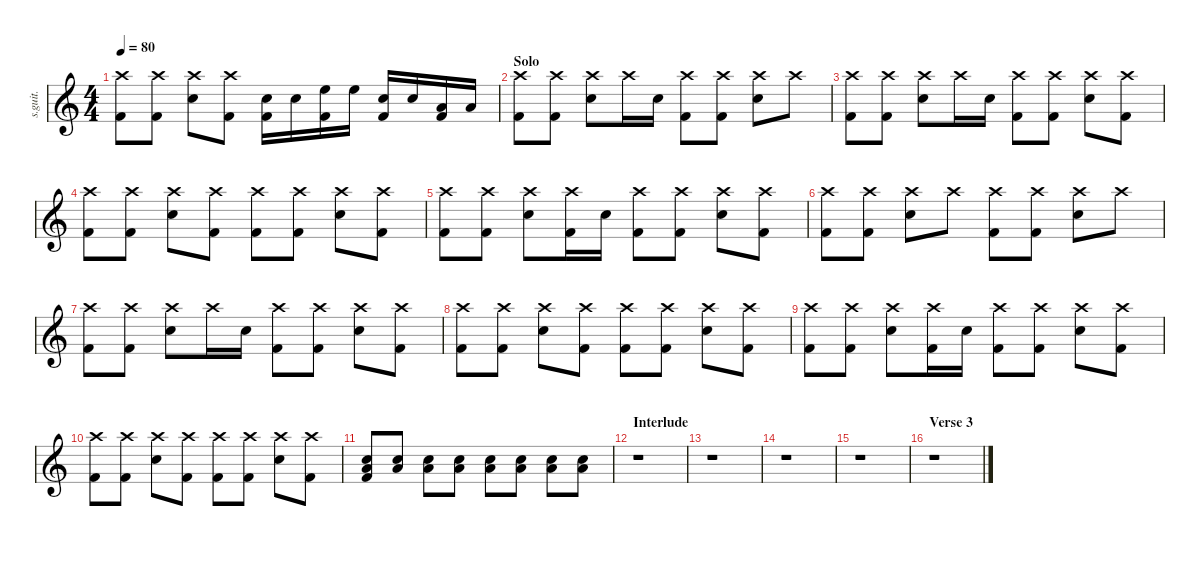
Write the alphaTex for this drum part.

\defaultSystemsLayout 4
\hideDynamics
\bracketExtendMode nobrackets
\track ("Tré Cool" "s.guit.") {instrument percussion}
\staff {score}
\articulation defaults
\ts (4 4)
\tempo 80
\clef g2
\ks c
("Crash high (hit)" "Kick (hit) 2").8{lyrics (0 "") lyrics (1 "") lyrics (2 "") lyrics (3 "") lyrics (4 "") dy f} ("Crash high (hit)" "Kick (hit) 2").8{lyrics (0 "") lyrics (1 "") lyrics (2 "") lyrics (3 "") lyrics (4 "")} ("Crash high (hit)" "Snare (hit) 2").8{lyrics (0 "") lyrics (1 "") lyrics (2 "") lyrics (3 "") lyrics (4 "")} ("Crash high (hit)" "Kick (hit) 2").8{lyrics (0 "") lyrics (1 "") lyrics (2 "") lyrics (3 "") lyrics (4 "")} ("Snare (hit) 2" "Kick (hit) 2").16{lyrics (0 "") lyrics (1 "") lyrics (2 "") lyrics (3 "") lyrics (4 "")} "Snare (hit) 2".16{lyrics (0 "") lyrics (1 "") lyrics (2 "") lyrics (3 "") lyrics (4 "")} ("High Floor Tom (hit)" "Kick (hit) 2").16{lyrics (0 "") lyrics (1 "") lyrics (2 "") lyrics (3 "") lyrics (4 "")} "High Floor Tom (hit)".16{lyrics (0 "") lyrics (1 "") lyrics (2 "") lyrics (3 "") lyrics (4 "")} ("Snare (hit) 2" "Kick (hit) 2").16{lyrics (0 "") lyrics (1 "") lyrics (2 "") lyrics (3 "") lyrics (4 "")} "Snare (hit) 2".16{lyrics (0 "") lyrics (1 "") lyrics (2 "") lyrics (3 "") lyrics (4 "")} ("Low Tom (hit)" "Kick (hit) 2").16{lyrics (0 "") lyrics (1 "") lyrics (2 "") lyrics (3 "") lyrics (4 "")} "Low Tom (hit)".16{lyrics (0 "") lyrics (1 "") lyrics (2 "") lyrics (3 "") lyrics (4 "")} |
\section ("" "Solo")
("Crash high (hit)" "Kick (hit) 2").8{lyrics (0 "") lyrics (1 "") lyrics (2 "") lyrics (3 "") lyrics (4 "")} ("Crash high (hit)" "Kick (hit) 2").8{lyrics (0 "") lyrics (1 "") lyrics (2 "") lyrics (3 "") lyrics (4 "")} ("Crash high (hit)" "Snare (hit) 2").8{lyrics (0 "") lyrics (1 "") lyrics (2 "") lyrics (3 "") lyrics (4 "")} "Crash high (hit)".16{lyrics (0 "") lyrics (1 "") lyrics (2 "") lyrics (3 "") lyrics (4 "")} "Snare (hit) 2".16{lyrics (0 "") lyrics (1 "") lyrics (2 "") lyrics (3 "") lyrics (4 "")} ("Crash high (hit)" "Kick (hit) 2").8{lyrics (0 "") lyrics (1 "") lyrics (2 "") lyrics (3 "") lyrics (4 "")} ("Crash high (hit)" "Kick (hit) 2").8{lyrics (0 "") lyrics (1 "") lyrics (2 "") lyrics (3 "") lyrics (4 "")} ("Crash high (hit)" "Snare (hit) 2").8{lyrics (0 "") lyrics (1 "") lyrics (2 "") lyrics (3 "") lyrics (4 "")} "Crash high (hit)".8{lyrics (0 "") lyrics (1 "") lyrics (2 "") lyrics (3 "") lyrics (4 "")} |
("Crash high (hit)" "Kick (hit) 2").8{lyrics (0 "") lyrics (1 "") lyrics (2 "") lyrics (3 "") lyrics (4 "")} ("Crash high (hit)" "Kick (hit) 2").8{lyrics (0 "") lyrics (1 "") lyrics (2 "") lyrics (3 "") lyrics (4 "")} ("Crash high (hit)" "Snare (hit) 2").8{lyrics (0 "") lyrics (1 "") lyrics (2 "") lyrics (3 "") lyrics (4 "")} "Crash high (hit)".16{lyrics (0 "") lyrics (1 "") lyrics (2 "") lyrics (3 "") lyrics (4 "")} "Snare (hit) 2".16{lyrics (0 "") lyrics (1 "") lyrics (2 "") lyrics (3 "") lyrics (4 "")} ("Crash high (hit)" "Kick (hit) 2").8{lyrics (0 "") lyrics (1 "") lyrics (2 "") lyrics (3 "") lyrics (4 "")} ("Crash high (hit)" "Kick (hit) 2").8{lyrics (0 "") lyrics (1 "") lyrics (2 "") lyrics (3 "") lyrics (4 "")} ("Crash high (hit)" "Snare (hit) 2").8{lyrics (0 "") lyrics (1 "") lyrics (2 "") lyrics (3 "") lyrics (4 "")} ("Crash high (hit)" "Kick (hit) 2").8{lyrics (0 "") lyrics (1 "") lyrics (2 "") lyrics (3 "") lyrics (4 "")} |
("Crash high (hit)" "Kick (hit) 2").8{lyrics (0 "") lyrics (1 "") lyrics (2 "") lyrics (3 "") lyrics (4 "")} ("Crash high (hit)" "Kick (hit) 2").8{lyrics (0 "") lyrics (1 "") lyrics (2 "") lyrics (3 "") lyrics (4 "")} ("Crash high (hit)" "Snare (hit) 2").8{lyrics (0 "") lyrics (1 "") lyrics (2 "") lyrics (3 "") lyrics (4 "")} ("Crash high (hit)" "Kick (hit) 2").8{lyrics (0 "") lyrics (1 "") lyrics (2 "") lyrics (3 "") lyrics (4 "")} ("Crash high (hit)" "Kick (hit) 2").8{lyrics (0 "") lyrics (1 "") lyrics (2 "") lyrics (3 "") lyrics (4 "")} ("Crash high (hit)" "Kick (hit) 2").8{lyrics (0 "") lyrics (1 "") lyrics (2 "") lyrics (3 "") lyrics (4 "")} ("Crash high (hit)" "Snare (hit) 2").8{lyrics (0 "") lyrics (1 "") lyrics (2 "") lyrics (3 "") lyrics (4 "")} ("Crash high (hit)" "Kick (hit) 2").8{lyrics (0 "") lyrics (1 "") lyrics (2 "") lyrics (3 "") lyrics (4 "")} |
("Crash high (hit)" "Kick (hit) 2").8{lyrics (0 "") lyrics (1 "") lyrics (2 "") lyrics (3 "") lyrics (4 "")} ("Crash high (hit)" "Kick (hit) 2").8{lyrics (0 "") lyrics (1 "") lyrics (2 "") lyrics (3 "") lyrics (4 "")} ("Crash high (hit)" "Snare (hit) 2").8{lyrics (0 "") lyrics (1 "") lyrics (2 "") lyrics (3 "") lyrics (4 "")} ("Crash high (hit)" "Kick (hit) 2").16{lyrics (0 "") lyrics (1 "") lyrics (2 "") lyrics (3 "") lyrics (4 "")} "Snare (hit) 2".16{lyrics (0 "") lyrics (1 "") lyrics (2 "") lyrics (3 "") lyrics (4 "")} ("Crash high (hit)" "Kick (hit) 2").8{lyrics (0 "") lyrics (1 "") lyrics (2 "") lyrics (3 "") lyrics (4 "")} ("Crash high (hit)" "Kick (hit) 2").8{lyrics (0 "") lyrics (1 "") lyrics (2 "") lyrics (3 "") lyrics (4 "")} ("Crash high (hit)" "Snare (hit) 2").8{lyrics (0 "") lyrics (1 "") lyrics (2 "") lyrics (3 "") lyrics (4 "")} ("Crash high (hit)" "Kick (hit) 2").8{lyrics (0 "") lyrics (1 "") lyrics (2 "") lyrics (3 "") lyrics (4 "")} |
("Crash high (hit)" "Kick (hit) 2").8{lyrics (0 "") lyrics (1 "") lyrics (2 "") lyrics (3 "") lyrics (4 "")} ("Crash high (hit)" "Kick (hit) 2").8{lyrics (0 "") lyrics (1 "") lyrics (2 "") lyrics (3 "") lyrics (4 "")} ("Crash high (hit)" "Snare (hit) 2").8{lyrics (0 "") lyrics (1 "") lyrics (2 "") lyrics (3 "") lyrics (4 "")} "Crash high (hit)".8{lyrics (0 "") lyrics (1 "") lyrics (2 "") lyrics (3 "") lyrics (4 "")} ("Crash high (hit)" "Kick (hit) 2").8{lyrics (0 "") lyrics (1 "") lyrics (2 "") lyrics (3 "") lyrics (4 "")} ("Crash high (hit)" "Kick (hit) 2").8{lyrics (0 "") lyrics (1 "") lyrics (2 "") lyrics (3 "") lyrics (4 "")} ("Crash high (hit)" "Snare (hit) 2").8{lyrics (0 "") lyrics (1 "") lyrics (2 "") lyrics (3 "") lyrics (4 "")} "Crash high (hit)".8{lyrics (0 "") lyrics (1 "") lyrics (2 "") lyrics (3 "") lyrics (4 "")} |
("Crash high (hit)" "Kick (hit) 2").8{lyrics (0 "") lyrics (1 "") lyrics (2 "") lyrics (3 "") lyrics (4 "")} ("Crash high (hit)" "Kick (hit) 2").8{lyrics (0 "") lyrics (1 "") lyrics (2 "") lyrics (3 "") lyrics (4 "")} ("Crash high (hit)" "Snare (hit) 2").8{lyrics (0 "") lyrics (1 "") lyrics (2 "") lyrics (3 "") lyrics (4 "")} "Crash high (hit)".16{lyrics (0 "") lyrics (1 "") lyrics (2 "") lyrics (3 "") lyrics (4 "")} "Snare (hit) 2".16{lyrics (0 "") lyrics (1 "") lyrics (2 "") lyrics (3 "") lyrics (4 "")} ("Crash high (hit)" "Kick (hit) 2").8{lyrics (0 "") lyrics (1 "") lyrics (2 "") lyrics (3 "") lyrics (4 "")} ("Crash high (hit)" "Kick (hit) 2").8{lyrics (0 "") lyrics (1 "") lyrics (2 "") lyrics (3 "") lyrics (4 "")} ("Crash high (hit)" "Snare (hit) 2").8{lyrics (0 "") lyrics (1 "") lyrics (2 "") lyrics (3 "") lyrics (4 "")} ("Crash high (hit)" "Kick (hit) 2").8{lyrics (0 "") lyrics (1 "") lyrics (2 "") lyrics (3 "") lyrics (4 "")} |
("Crash high (hit)" "Kick (hit) 2").8{lyrics (0 "") lyrics (1 "") lyrics (2 "") lyrics (3 "") lyrics (4 "")} ("Crash high (hit)" "Kick (hit) 2").8{lyrics (0 "") lyrics (1 "") lyrics (2 "") lyrics (3 "") lyrics (4 "")} ("Crash high (hit)" "Snare (hit) 2").8{lyrics (0 "") lyrics (1 "") lyrics (2 "") lyrics (3 "") lyrics (4 "")} ("Crash high (hit)" "Kick (hit) 2").8{lyrics (0 "") lyrics (1 "") lyrics (2 "") lyrics (3 "") lyrics (4 "")} ("Crash high (hit)" "Kick (hit) 2").8{lyrics (0 "") lyrics (1 "") lyrics (2 "") lyrics (3 "") lyrics (4 "")} ("Crash high (hit)" "Kick (hit) 2").8{lyrics (0 "") lyrics (1 "") lyrics (2 "") lyrics (3 "") lyrics (4 "")} ("Crash high (hit)" "Snare (hit) 2").8{lyrics (0 "") lyrics (1 "") lyrics (2 "") lyrics (3 "") lyrics (4 "")} ("Crash high (hit)" "Kick (hit) 2").8{lyrics (0 "") lyrics (1 "") lyrics (2 "") lyrics (3 "") lyrics (4 "")} |
("Crash high (hit)" "Kick (hit) 2").8{lyrics (0 "") lyrics (1 "") lyrics (2 "") lyrics (3 "") lyrics (4 "")} ("Crash high (hit)" "Kick (hit) 2").8{lyrics (0 "") lyrics (1 "") lyrics (2 "") lyrics (3 "") lyrics (4 "")} ("Crash high (hit)" "Snare (hit) 2").8{lyrics (0 "") lyrics (1 "") lyrics (2 "") lyrics (3 "") lyrics (4 "")} ("Crash high (hit)" "Kick (hit) 2").16{lyrics (0 "") lyrics (1 "") lyrics (2 "") lyrics (3 "") lyrics (4 "")} "Snare (hit) 2".16{lyrics (0 "") lyrics (1 "") lyrics (2 "") lyrics (3 "") lyrics (4 "")} ("Crash high (hit)" "Kick (hit) 2").8{lyrics (0 "") lyrics (1 "") lyrics (2 "") lyrics (3 "") lyrics (4 "")} ("Crash high (hit)" "Kick (hit) 2").8{lyrics (0 "") lyrics (1 "") lyrics (2 "") lyrics (3 "") lyrics (4 "")} ("Crash high (hit)" "Snare (hit) 2").8{lyrics (0 "") lyrics (1 "") lyrics (2 "") lyrics (3 "") lyrics (4 "")} ("Crash high (hit)" "Kick (hit) 2").8{lyrics (0 "") lyrics (1 "") lyrics (2 "") lyrics (3 "") lyrics (4 "")} |
("Crash high (hit)" "Kick (hit) 2").8{lyrics (0 "") lyrics (1 "") lyrics (2 "") lyrics (3 "") lyrics (4 "")} ("Crash high (hit)" "Kick (hit) 2").8{lyrics (0 "") lyrics (1 "") lyrics (2 "") lyrics (3 "") lyrics (4 "")} ("Crash high (hit)" "Snare (hit) 2").8{lyrics (0 "") lyrics (1 "") lyrics (2 "") lyrics (3 "") lyrics (4 "")} ("Crash high (hit)" "Kick (hit) 2").8{lyrics (0 "") lyrics (1 "") lyrics (2 "") lyrics (3 "") lyrics (4 "")} ("Crash high (hit)" "Kick (hit) 2").8{lyrics (0 "") lyrics (1 "") lyrics (2 "") lyrics (3 "") lyrics (4 "")} ("Crash high (hit)" "Kick (hit) 2").8{lyrics (0 "") lyrics (1 "") lyrics (2 "") lyrics (3 "") lyrics (4 "")} ("Crash high (hit)" "Snare (hit) 2").8{lyrics (0 "") lyrics (1 "") lyrics (2 "") lyrics (3 "") lyrics (4 "")} ("Crash high (hit)" "Kick (hit) 2").8{lyrics (0 "") lyrics (1 "") lyrics (2 "") lyrics (3 "") lyrics (4 "")} |
("Snare (hit) 2" "Low Tom (hit)" "Kick (hit) 2").8{lyrics (0 "") lyrics (1 "") lyrics (2 "") lyrics (3 "") lyrics (4 "")} ("Snare (hit) 2" "Low Tom (hit)").8{lyrics (0 "") lyrics (1 "") lyrics (2 "") lyrics (3 "") lyrics (4 "")} ("Snare (hit) 2" "Low Tom (hit)").8{lyrics (0 "") lyrics (1 "") lyrics (2 "") lyrics (3 "") lyrics (4 "")} ("Snare (hit) 2" "Low Tom (hit)").8{lyrics (0 "") lyrics (1 "") lyrics (2 "") lyrics (3 "") lyrics (4 "")} ("Snare (hit) 2" "Low Tom (hit)").8{lyrics (0 "") lyrics (1 "") lyrics (2 "") lyrics (3 "") lyrics (4 "")} ("Snare (hit) 2" "Low Tom (hit)").8{lyrics (0 "") lyrics (1 "") lyrics (2 "") lyrics (3 "") lyrics (4 "")} ("Snare (hit) 2" "Low Tom (hit)").8{lyrics (0 "") lyrics (1 "") lyrics (2 "") lyrics (3 "") lyrics (4 "")} ("Snare (hit) 2" "Low Tom (hit)").8{lyrics (0 "") lyrics (1 "") lyrics (2 "") lyrics (3 "") lyrics (4 "")} |
\section ("" "Interlude")
r.1 |
r.1 |
r.1 |
r.1 |
\section ("" "Verse 3")
r.1
